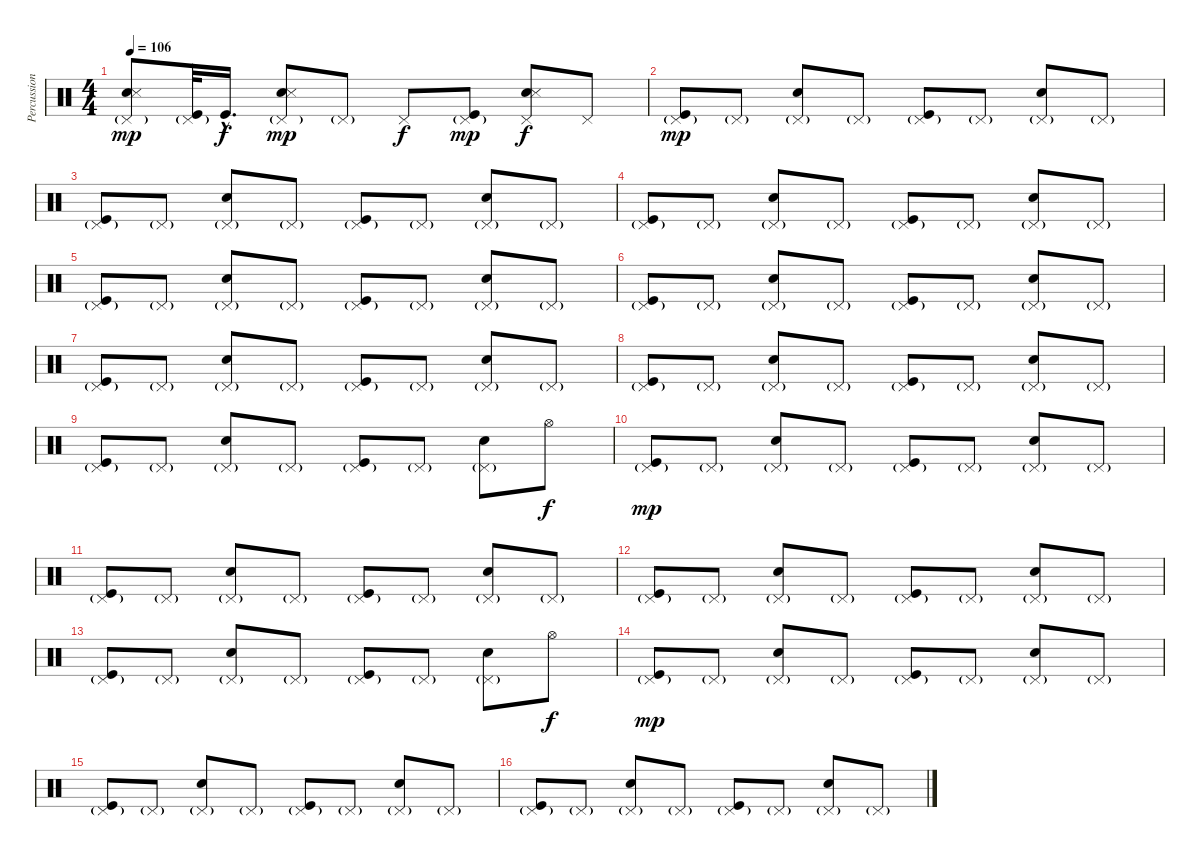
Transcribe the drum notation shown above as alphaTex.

\track ("Percussions" "Percussion") {instrument percussion}
\staff {score}
\articulation defaults
\ts (4 4)
\tempo 106
\clef neutral
\ks c
("Pedal Hi-Hat (hit)"{g} "Electric Snare (hit)" "Snare (side stick) 3").8{dy mp} ("Pedal Hi-Hat (hit)"{g} "Kick (hit)").32 "Kick (hit)"{hac}.16{d dy f} ("Pedal Hi-Hat (hit)"{g} "Electric Snare (hit)" "Snare (side stick) 3").8{dy mp} "Pedal Hi-Hat (hit)"{g}.8 "Pedal Hi-Hat (hit)".8{dy f} ("Pedal Hi-Hat (hit)"{g} "Kick (hit)").8{dy mp} ("Pedal Hi-Hat (hit)" "Electric Snare (hit)" "Snare (side stick) 3").8{dy f} "Pedal Hi-Hat (hit)".8 |
("Pedal Hi-Hat (hit)"{g} "Kick (hit)").8{dy mp} "Pedal Hi-Hat (hit)"{g}.8 ("Pedal Hi-Hat (hit)"{g} "Electric Snare (hit)").8 "Pedal Hi-Hat (hit)"{g}.8 ("Pedal Hi-Hat (hit)"{g} "Kick (hit)").8 "Pedal Hi-Hat (hit)"{g}.8 ("Pedal Hi-Hat (hit)"{g} "Electric Snare (hit)").8 "Pedal Hi-Hat (hit)"{g}.8 |
("Pedal Hi-Hat (hit)"{g} "Kick (hit)").8 "Pedal Hi-Hat (hit)"{g}.8 ("Pedal Hi-Hat (hit)"{g} "Electric Snare (hit)").8 "Pedal Hi-Hat (hit)"{g}.8 ("Pedal Hi-Hat (hit)"{g} "Kick (hit)").8 "Pedal Hi-Hat (hit)"{g}.8 ("Pedal Hi-Hat (hit)"{g} "Electric Snare (hit)").8 "Pedal Hi-Hat (hit)"{g}.8 |
("Pedal Hi-Hat (hit)"{g} "Kick (hit)").8 "Pedal Hi-Hat (hit)"{g}.8 ("Pedal Hi-Hat (hit)"{g} "Electric Snare (hit)").8 "Pedal Hi-Hat (hit)"{g}.8 ("Pedal Hi-Hat (hit)"{g} "Kick (hit)").8 "Pedal Hi-Hat (hit)"{g}.8 ("Pedal Hi-Hat (hit)"{g} "Electric Snare (hit)").8 "Pedal Hi-Hat (hit)"{g}.8 |
("Pedal Hi-Hat (hit)"{g} "Kick (hit)").8 "Pedal Hi-Hat (hit)"{g}.8 ("Pedal Hi-Hat (hit)"{g} "Electric Snare (hit)").8 "Pedal Hi-Hat (hit)"{g}.8 ("Pedal Hi-Hat (hit)"{g} "Kick (hit)").8 "Pedal Hi-Hat (hit)"{g}.8 ("Pedal Hi-Hat (hit)"{g} "Electric Snare (hit)").8 "Pedal Hi-Hat (hit)"{g}.8 |
("Pedal Hi-Hat (hit)"{g} "Kick (hit)").8 "Pedal Hi-Hat (hit)"{g}.8 ("Pedal Hi-Hat (hit)"{g} "Electric Snare (hit)").8 "Pedal Hi-Hat (hit)"{g}.8 ("Pedal Hi-Hat (hit)"{g} "Kick (hit)").8 "Pedal Hi-Hat (hit)"{g}.8 ("Pedal Hi-Hat (hit)"{g} "Electric Snare (hit)").8 "Pedal Hi-Hat (hit)"{g}.8 |
("Pedal Hi-Hat (hit)"{g} "Kick (hit)").8 "Pedal Hi-Hat (hit)"{g}.8 ("Pedal Hi-Hat (hit)"{g} "Electric Snare (hit)").8 "Pedal Hi-Hat (hit)"{g}.8 ("Pedal Hi-Hat (hit)"{g} "Kick (hit)").8 "Pedal Hi-Hat (hit)"{g}.8 ("Pedal Hi-Hat (hit)"{g} "Electric Snare (hit)").8 "Pedal Hi-Hat (hit)"{g}.8 |
("Pedal Hi-Hat (hit)"{g} "Kick (hit)").8 "Pedal Hi-Hat (hit)"{g}.8 ("Pedal Hi-Hat (hit)"{g} "Electric Snare (hit)").8 "Pedal Hi-Hat (hit)"{g}.8 ("Pedal Hi-Hat (hit)"{g} "Kick (hit)").8 "Pedal Hi-Hat (hit)"{g}.8 ("Pedal Hi-Hat (hit)"{g} "Electric Snare (hit)").8 "Pedal Hi-Hat (hit)"{g}.8 |
("Pedal Hi-Hat (hit)"{g} "Kick (hit)").8 "Pedal Hi-Hat (hit)"{g}.8 ("Pedal Hi-Hat (hit)"{g} "Electric Snare (hit)").8 "Pedal Hi-Hat (hit)"{g}.8 ("Pedal Hi-Hat (hit)"{g} "Kick (hit)").8 "Pedal Hi-Hat (hit)"{g}.8 ("Pedal Hi-Hat (hit)"{g} "Electric Snare (hit)").8 "Hi-Hat (open)".8{dy f} |
("Pedal Hi-Hat (hit)"{g} "Kick (hit)").8{dy mp volume 13} "Pedal Hi-Hat (hit)"{g}.8 ("Pedal Hi-Hat (hit)"{g} "Electric Snare (hit)").8 "Pedal Hi-Hat (hit)"{g}.8 ("Pedal Hi-Hat (hit)"{g} "Kick (hit)").8 "Pedal Hi-Hat (hit)"{g}.8 ("Pedal Hi-Hat (hit)"{g} "Electric Snare (hit)").8 "Pedal Hi-Hat (hit)"{g}.8 |
("Pedal Hi-Hat (hit)"{g} "Kick (hit)").8 "Pedal Hi-Hat (hit)"{g}.8 ("Pedal Hi-Hat (hit)"{g} "Electric Snare (hit)").8 "Pedal Hi-Hat (hit)"{g}.8 ("Pedal Hi-Hat (hit)"{g} "Kick (hit)").8 "Pedal Hi-Hat (hit)"{g}.8 ("Pedal Hi-Hat (hit)"{g} "Electric Snare (hit)").8 "Pedal Hi-Hat (hit)"{g}.8 |
("Pedal Hi-Hat (hit)"{g} "Kick (hit)").8 "Pedal Hi-Hat (hit)"{g}.8 ("Pedal Hi-Hat (hit)"{g} "Electric Snare (hit)").8 "Pedal Hi-Hat (hit)"{g}.8 ("Pedal Hi-Hat (hit)"{g} "Kick (hit)").8 "Pedal Hi-Hat (hit)"{g}.8 ("Pedal Hi-Hat (hit)"{g} "Electric Snare (hit)").8 "Pedal Hi-Hat (hit)"{g}.8 |
("Pedal Hi-Hat (hit)"{g} "Kick (hit)").8 "Pedal Hi-Hat (hit)"{g}.8 ("Pedal Hi-Hat (hit)"{g} "Electric Snare (hit)").8 "Pedal Hi-Hat (hit)"{g}.8 ("Pedal Hi-Hat (hit)"{g} "Kick (hit)").8 "Pedal Hi-Hat (hit)"{g}.8 ("Pedal Hi-Hat (hit)"{g} "Electric Snare (hit)").8 "Hi-Hat (open)".8{dy f} |
("Pedal Hi-Hat (hit)"{g} "Kick (hit)").8{dy mp volume 13} "Pedal Hi-Hat (hit)"{g}.8 ("Pedal Hi-Hat (hit)"{g} "Electric Snare (hit)").8 "Pedal Hi-Hat (hit)"{g}.8 ("Pedal Hi-Hat (hit)"{g} "Kick (hit)").8 "Pedal Hi-Hat (hit)"{g}.8 ("Pedal Hi-Hat (hit)"{g} "Electric Snare (hit)").8 "Pedal Hi-Hat (hit)"{g}.8 |
("Pedal Hi-Hat (hit)"{g} "Kick (hit)").8 "Pedal Hi-Hat (hit)"{g}.8 ("Pedal Hi-Hat (hit)"{g} "Electric Snare (hit)").8 "Pedal Hi-Hat (hit)"{g}.8 ("Pedal Hi-Hat (hit)"{g} "Kick (hit)").8 "Pedal Hi-Hat (hit)"{g}.8 ("Pedal Hi-Hat (hit)"{g} "Electric Snare (hit)").8 "Pedal Hi-Hat (hit)"{g}.8 |
("Pedal Hi-Hat (hit)"{g} "Kick (hit)").8 "Pedal Hi-Hat (hit)"{g}.8 ("Pedal Hi-Hat (hit)"{g} "Electric Snare (hit)").8 "Pedal Hi-Hat (hit)"{g}.8 ("Pedal Hi-Hat (hit)"{g} "Kick (hit)").8 "Pedal Hi-Hat (hit)"{g}.8 ("Pedal Hi-Hat (hit)"{g} "Electric Snare (hit)").8 "Pedal Hi-Hat (hit)"{g}.8
